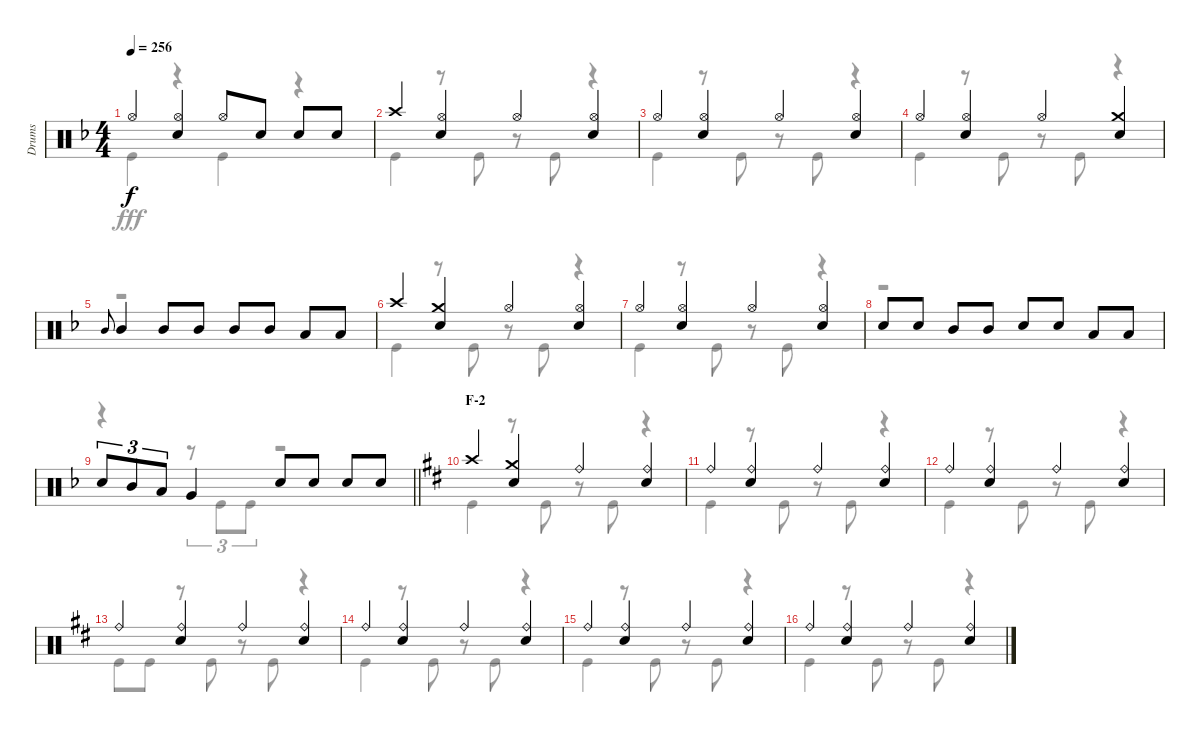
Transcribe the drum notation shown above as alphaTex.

\track ("Drums" "Drums") {instrument percussion}
\staff {score}
\articulation defaults
\voice
\ts (4 4)
\tempo 256
\clef neutral
\ks f "Hi-Hat (open)".4{dy f}
("Hi-Hat (open)" "Snare (hit) 2").4 "Hi-Hat (open)".8 "Snare (hit) 2".8 "Snare (hit) 2".8 "Snare (hit) 2".8 |
"Crash high (hit)".4 ("Hi-Hat (open)" "Snare (hit) 2").4 "Hi-Hat (open)".4 ("Hi-Hat (open)" "Snare (hit) 2").4 |
"Hi-Hat (open)".4 ("Hi-Hat (open)" "Snare (hit) 2").4 "Hi-Hat (open)".4 ("Hi-Hat (open)" "Snare (hit) 2").4 |
"Hi-Hat (open)".4 ("Hi-Hat (open)" "Snare (hit) 2").4 "Hi-Hat (open)".4 ("Crash medium (hit)" "Snare (hit) 2").4 |
"Mid Tom (hit)".8{gr onbeat} "Mid Tom (hit)".4 "Mid Tom (hit)".8 "Mid Tom (hit)".8 "Mid Tom (hit)".8 "Mid Tom (hit)".8 "Low Tom (hit)".8 "Low Tom (hit)".8 |
"Crash high (hit)".4 ("Crash medium (hit)" "Snare (hit) 2").4 "Hi-Hat (open)".4 ("Hi-Hat (open)" "Snare (hit) 2").4 |
"Hi-Hat (open)".4 ("Hi-Hat (open)" "Snare (hit) 2").4 "Hi-Hat (open)".4 ("Hi-Hat (open)" "Snare (hit) 2").4 |
"Snare (hit) 2".8 "Snare (hit) 2".8 "Mid Tom (hit)".8 "Mid Tom (hit)".8 "Snare (hit) 2".8 "Snare (hit) 2".8 "Low Tom (hit)".8 "Low Tom (hit)".8 |
\barLineRight lightlight "Snare (hit) 2".8{tu (3 2)} "Mid Tom (hit)".8{tu (3 2)} "Low Tom (hit)".8{tu (3 2)} "Very Low Tom (hit)".4 "Snare (hit) 2".8 "Snare (hit) 2".8 "Snare (hit) 2".8 "Snare (hit) 2".8
|
\section ("" "F-2")
\ks d "Crash high (hit)".4
("Crash medium (hit)" "Snare (hit) 2").4 "Ride (bell)".4 ("Ride (bell)" "Snare (hit) 2").4 |
"Ride (bell)".4 ("Ride (bell)" "Snare (hit) 2").4 "Ride (bell)".4 ("Ride (bell)" "Snare (hit) 2").4 |
"Ride (bell)".4 ("Ride (bell)" "Snare (hit) 2").4 "Ride (bell)".4 ("Ride (bell)" "Snare (hit) 2").4 |
"Ride (bell)".4 ("Ride (bell)" "Snare (hit) 2").4 "Ride (bell)".4 ("Ride (bell)" "Snare (hit) 2").4 |
"Ride (bell)".4 ("Ride (bell)" "Snare (hit) 2").4 "Ride (bell)".4 ("Ride (bell)" "Snare (hit) 2").4 |
"Ride (bell)".4 ("Ride (bell)" "Snare (hit) 2").4 "Ride (bell)".4 ("Ride (bell)" "Snare (hit) 2").4 |
"Ride (bell)".4 ("Ride (bell)" "Snare (hit) 2").4 "Ride (bell)".4 ("Ride (bell)" "Snare (hit) 2").4
\voice
\clef neutral
\ottava regular
\simile none
\ks f "Kick (hit)".4{dy fff}
r.4 "Kick (hit)".4 r.4 |
"Kick (hit)".4 r.8 "Kick (hit)".8 r.8 "Kick (hit)".8 r.4 |
"Kick (hit)".4 r.8 "Kick (hit)".8 r.8 "Kick (hit)".8 r.4 |
"Kick (hit)".4 r.8 "Kick (hit)".8 r.8 "Kick (hit)".8 r.4 |
r.1 |
"Kick (hit)".4 r.8 "Kick (hit)".8 r.8 "Kick (hit)".8 r.4 |
"Kick (hit)".4 r.8 "Kick (hit)".8 r.8 "Kick (hit)".8 r.4 |
r.1 |
\barLineRight lightlight
r.4 r.8{tu (3 2)} "Kick (hit)".8{tu (3 2)} "Kick (hit)".8{tu (3 2)} r.2 |
\ks d "Kick (hit)".4
r.8 "Kick (hit)".8 r.8 "Kick (hit)".8 r.4 |
"Kick (hit)".4 r.8 "Kick (hit)".8 r.8 "Kick (hit)".8 r.4 |
"Kick (hit)".4 r.8 "Kick (hit)".8 r.8 "Kick (hit)".8 r.4 |
"Kick (hit)".8 "Kick (hit)".8 r.8 "Kick (hit)".8 r.8 "Kick (hit)".8 r.4 |
"Kick (hit)".4 r.8 "Kick (hit)".8 r.8 "Kick (hit)".8 r.4 |
"Kick (hit)".4 r.8 "Kick (hit)".8 r.8 "Kick (hit)".8 r.4 |
"Kick (hit)".4 r.8 "Kick (hit)".8 r.8 "Kick (hit)".8 r.4
